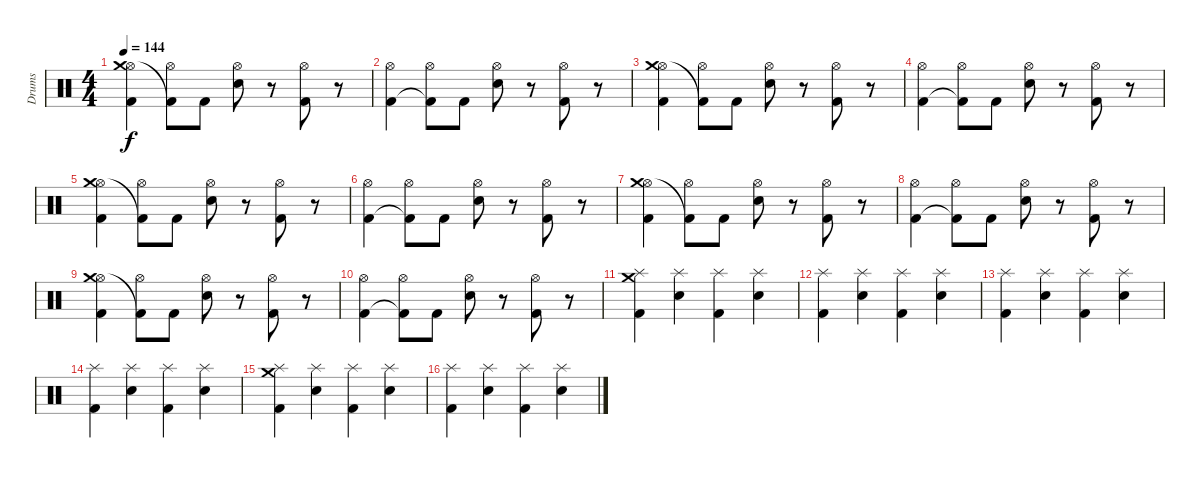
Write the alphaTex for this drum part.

\track ("Drums" "Drums") {instrument percussion}
\staff {score}
\articulation defaults
\ts (4 4)
\tempo 144
\clef neutral
\ks c
("Hi-Hat (open)" "Crash medium (hit)" "Kick (hit) 2").4{dy f} ("Hi-Hat (open)" "Kick (hit) 2"{t}).8 "Kick (hit) 2".8 ("Hi-Hat (open)" "Snare (hit) 2").8 r.8 ("Hi-Hat (open)" "Kick (hit) 2").8 r.8 |
("Hi-Hat (open)" "Kick (hit) 2").4 ("Hi-Hat (open)" "Kick (hit) 2"{t}).8 "Kick (hit) 2".8 ("Hi-Hat (open)" "Snare (hit) 2").8 r.8 ("Hi-Hat (open)" "Kick (hit) 2").8 r.8 |
("Hi-Hat (open)" "Crash medium (hit)" "Kick (hit) 2").4 ("Hi-Hat (open)" "Kick (hit) 2"{t}).8 "Kick (hit) 2".8 ("Hi-Hat (open)" "Snare (hit) 2").8 r.8 ("Hi-Hat (open)" "Kick (hit) 2").8 r.8 |
("Hi-Hat (open)" "Kick (hit) 2").4 ("Hi-Hat (open)" "Kick (hit) 2"{t}).8 "Kick (hit) 2".8 ("Hi-Hat (open)" "Snare (hit) 2").8 r.8 ("Hi-Hat (open)" "Kick (hit) 2").8 r.8 |
("Hi-Hat (open)" "Crash medium (hit)" "Kick (hit) 2").4 ("Hi-Hat (open)" "Kick (hit) 2"{t}).8 "Kick (hit) 2".8 ("Hi-Hat (open)" "Snare (hit) 2").8 r.8 ("Hi-Hat (open)" "Kick (hit) 2").8 r.8 |
("Hi-Hat (open)" "Kick (hit) 2").4 ("Hi-Hat (open)" "Kick (hit) 2"{t}).8 "Kick (hit) 2".8 ("Hi-Hat (open)" "Snare (hit) 2").8 r.8 ("Hi-Hat (open)" "Kick (hit) 2").8 r.8 |
("Hi-Hat (open)" "Crash medium (hit)" "Kick (hit) 2").4 ("Hi-Hat (open)" "Kick (hit) 2"{t}).8 "Kick (hit) 2".8 ("Hi-Hat (open)" "Snare (hit) 2").8 r.8 ("Hi-Hat (open)" "Kick (hit) 2").8 r.8 |
("Hi-Hat (open)" "Kick (hit) 2").4 ("Hi-Hat (open)" "Kick (hit) 2"{t}).8 "Kick (hit) 2".8 ("Hi-Hat (open)" "Snare (hit) 2").8 r.8 ("Hi-Hat (open)" "Kick (hit) 2").8 r.8 |
("Hi-Hat (open)" "Crash medium (hit)" "Kick (hit) 2").4 ("Hi-Hat (open)" "Kick (hit) 2"{t}).8 "Kick (hit) 2".8 ("Hi-Hat (open)" "Snare (hit) 2").8 r.8 ("Hi-Hat (open)" "Kick (hit) 2").8 r.8 |
("Hi-Hat (open)" "Kick (hit) 2").4 ("Hi-Hat (open)" "Kick (hit) 2"{t}).8 "Kick (hit) 2".8 ("Hi-Hat (open)" "Snare (hit) 2").8 r.8 ("Hi-Hat (open)" "Kick (hit) 2").8 r.8 |
("Splash (hit)" "Crash medium (hit)" "Kick (hit) 2").4 ("Splash (hit)" "Snare (hit) 2").4 ("Splash (hit)" "Kick (hit) 2").4 ("Splash (hit)" "Snare (hit) 2").4 |
("Splash (hit)" "Kick (hit) 2").4 ("Splash (hit)" "Snare (hit) 2").4 ("Splash (hit)" "Kick (hit) 2").4 ("Splash (hit)" "Snare (hit) 2").4 |
("Splash (hit)" "Kick (hit) 2").4 ("Splash (hit)" "Snare (hit) 2").4 ("Splash (hit)" "Kick (hit) 2").4 ("Splash (hit)" "Snare (hit) 2").4 |
("Splash (hit)" "Kick (hit) 2").4 ("Splash (hit)" "Snare (hit) 2").4 ("Splash (hit)" "Kick (hit) 2").4 ("Splash (hit)" "Snare (hit) 2").4 |
("Splash (hit)" "Crash medium (hit)" "Kick (hit) 2").4 ("Splash (hit)" "Snare (hit) 2").4 ("Splash (hit)" "Kick (hit) 2").4 ("Splash (hit)" "Snare (hit) 2").4 |
("Splash (hit)" "Kick (hit) 2").4 ("Splash (hit)" "Snare (hit) 2").4 ("Splash (hit)" "Kick (hit) 2").4 ("Splash (hit)" "Snare (hit) 2").4
